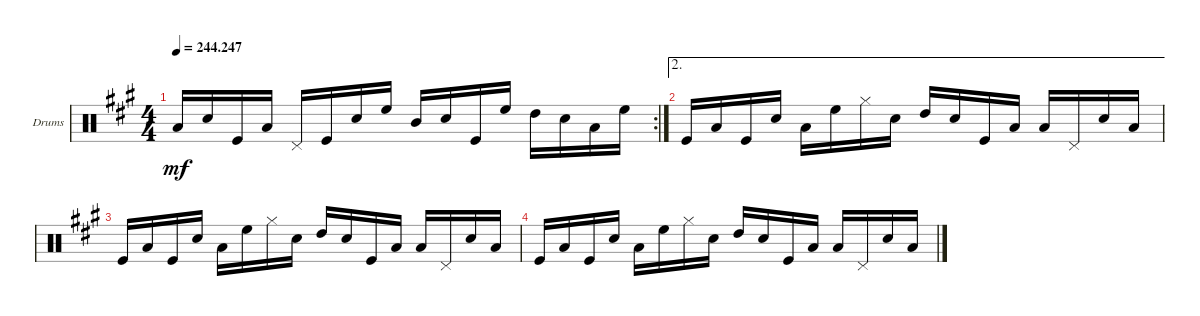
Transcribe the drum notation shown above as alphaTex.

\defaultSystemsLayout 4
\bracketExtendMode groupsimilarinstruments
\firstSystemTrackNameOrientation horizontal
\otherSystemsTrackNameOrientation horizontal
\track ("Drumkit" "Drums") {instrument percussion}
\staff {score}
\articulation defaults
\rc 2
\ts (4 4)
\tempo
244.247
\accidentals auto
\clef neutral
\ottava regular
\simile none
\scale
0.356322
\ks a "Low Tom (hit)".16{dy mf} "Snare (hit) 2".16 "Kick (hit)".16 "Low Tom (hit)".16 "Pedal Hi-Hat (hit)".16 "Kick (hit)".16 "Snare (hit) 2".16 "High Floor Tom (hit)".16 "Mid Tom (hit)".16 "Snare (hit) 2".16 "Kick (hit)".16 "High Floor Tom (hit)".16 "High Tom (hit)".16 "Snare (hit) 2".16 "Low Tom (hit)".16 "High Floor Tom (hit)".16
|
\ae 2
\scale
0.333333 "Kick (hit)".16 "Low Tom (hit)".16 "Kick (hit)".16 "Snare (hit) 2".16 "Low Tom (hit)".16 "High Floor Tom (hit)".16 "Hi-Hat (closed)".16 "Snare (hit) 2".16 "High Tom (hit)".16 "Snare (hit) 2".16 "Kick (hit)".16 "Low Tom (hit)".16 "Low Tom (hit)".16 "Pedal Hi-Hat (hit)".16 "Snare (hit) 2".16 "Low Tom (hit)".16 |
\scale
0.333333 "Kick (hit)".16 "Low Tom (hit)".16 "Kick (hit)".16 "Snare (hit) 2".16 "Low Tom (hit)".16 "High Floor Tom (hit)".16 "Hi-Hat (closed)".16 "Snare (hit) 2".16 "High Tom (hit)".16 "Snare (hit) 2".16 "Kick (hit)".16 "Low Tom (hit)".16 "Low Tom (hit)".16 "Pedal Hi-Hat (hit)".16 "Snare (hit) 2".16 "Low Tom (hit)".16 |
\scale
0.333333 "Kick (hit)".16 "Low Tom (hit)".16 "Kick (hit)".16 "Snare (hit) 2".16 "Low Tom (hit)".16 "High Floor Tom (hit)".16 "Hi-Hat (closed)".16 "Snare (hit) 2".16 "High Tom (hit)".16 "Snare (hit) 2".16 "Kick (hit)".16 "Low Tom (hit)".16 "Low Tom (hit)".16 "Pedal Hi-Hat (hit)".16 "Snare (hit) 2".16 "Low Tom (hit)".16
